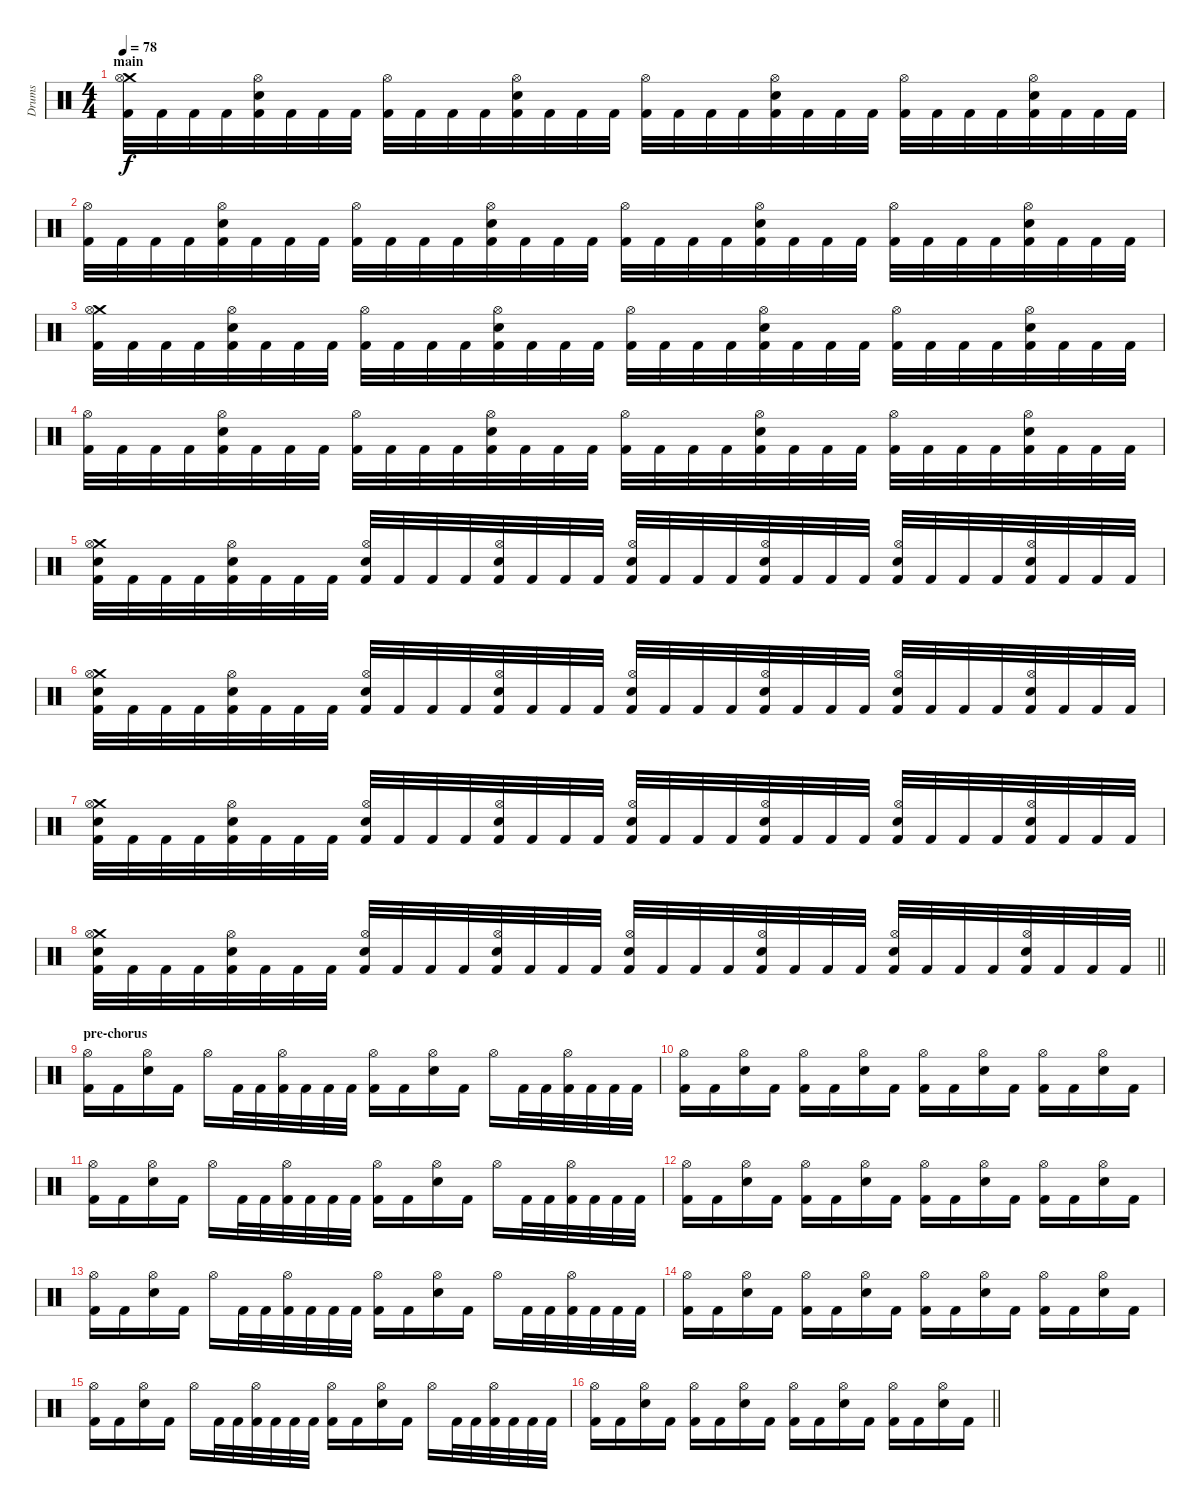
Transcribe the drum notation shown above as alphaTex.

\track ("Drums" "Drums") {instrument percussion}
\staff {score}
\articulation defaults
\ts (4 4)
\section ("" "main")
\tempo 78
\clef neutral
\ks c
("Crash medium (hit)" "Kick (hit) 2" "Hi-Hat (open)").32{dy f} "Kick (hit) 2".32 "Kick (hit) 2".32 "Kick (hit) 2".32 ("Electric Snare (hit)" "Kick (hit) 2" "Hi-Hat (open)").32 "Kick (hit) 2".32 "Kick (hit) 2".32 "Kick (hit) 2".32 ("Kick (hit) 2" "Hi-Hat (open)").32 "Kick (hit) 2".32 "Kick (hit) 2".32 "Kick (hit) 2".32 ("Electric Snare (hit)" "Kick (hit) 2" "Hi-Hat (open)").32 "Kick (hit) 2".32 "Kick (hit) 2".32 "Kick (hit) 2".32 ("Kick (hit) 2" "Hi-Hat (open)").32 "Kick (hit) 2".32 "Kick (hit) 2".32 "Kick (hit) 2".32 ("Electric Snare (hit)" "Kick (hit) 2" "Hi-Hat (open)").32 "Kick (hit) 2".32 "Kick (hit) 2".32 "Kick (hit) 2".32 ("Kick (hit) 2" "Hi-Hat (open)").32 "Kick (hit) 2".32 "Kick (hit) 2".32 "Kick (hit) 2".32 ("Electric Snare (hit)" "Kick (hit) 2" "Hi-Hat (open)").32 "Kick (hit) 2".32 "Kick (hit) 2".32 "Kick (hit) 2".32 |
("Kick (hit) 2" "Hi-Hat (open)").32 "Kick (hit) 2".32 "Kick (hit) 2".32 "Kick (hit) 2".32 ("Electric Snare (hit)" "Kick (hit) 2" "Hi-Hat (open)").32 "Kick (hit) 2".32 "Kick (hit) 2".32 "Kick (hit) 2".32 ("Kick (hit) 2" "Hi-Hat (open)").32 "Kick (hit) 2".32 "Kick (hit) 2".32 "Kick (hit) 2".32 ("Electric Snare (hit)" "Kick (hit) 2" "Hi-Hat (open)").32 "Kick (hit) 2".32 "Kick (hit) 2".32 "Kick (hit) 2".32 ("Kick (hit) 2" "Hi-Hat (open)").32 "Kick (hit) 2".32 "Kick (hit) 2".32 "Kick (hit) 2".32 ("Electric Snare (hit)" "Kick (hit) 2" "Hi-Hat (open)").32 "Kick (hit) 2".32 "Kick (hit) 2".32 "Kick (hit) 2".32 ("Kick (hit) 2" "Hi-Hat (open)").32 "Kick (hit) 2".32 "Kick (hit) 2".32 "Kick (hit) 2".32 ("Electric Snare (hit)" "Kick (hit) 2" "Hi-Hat (open)").32 "Kick (hit) 2".32 "Kick (hit) 2".32 "Kick (hit) 2".32 |
("Crash medium (hit)" "Kick (hit) 2" "Hi-Hat (open)").32 "Kick (hit) 2".32 "Kick (hit) 2".32 "Kick (hit) 2".32 ("Electric Snare (hit)" "Kick (hit) 2" "Hi-Hat (open)").32 "Kick (hit) 2".32 "Kick (hit) 2".32 "Kick (hit) 2".32 ("Kick (hit) 2" "Hi-Hat (open)").32 "Kick (hit) 2".32 "Kick (hit) 2".32 "Kick (hit) 2".32 ("Electric Snare (hit)" "Kick (hit) 2" "Hi-Hat (open)").32 "Kick (hit) 2".32 "Kick (hit) 2".32 "Kick (hit) 2".32 ("Kick (hit) 2" "Hi-Hat (open)").32 "Kick (hit) 2".32 "Kick (hit) 2".32 "Kick (hit) 2".32 ("Electric Snare (hit)" "Kick (hit) 2" "Hi-Hat (open)").32 "Kick (hit) 2".32 "Kick (hit) 2".32 "Kick (hit) 2".32 ("Kick (hit) 2" "Hi-Hat (open)").32 "Kick (hit) 2".32 "Kick (hit) 2".32 "Kick (hit) 2".32 ("Electric Snare (hit)" "Kick (hit) 2" "Hi-Hat (open)").32 "Kick (hit) 2".32 "Kick (hit) 2".32 "Kick (hit) 2".32 |
("Kick (hit) 2" "Hi-Hat (open)").32 "Kick (hit) 2".32 "Kick (hit) 2".32 "Kick (hit) 2".32 ("Electric Snare (hit)" "Kick (hit) 2" "Hi-Hat (open)").32 "Kick (hit) 2".32 "Kick (hit) 2".32 "Kick (hit) 2".32 ("Kick (hit) 2" "Hi-Hat (open)").32 "Kick (hit) 2".32 "Kick (hit) 2".32 "Kick (hit) 2".32 ("Electric Snare (hit)" "Kick (hit) 2" "Hi-Hat (open)").32 "Kick (hit) 2".32 "Kick (hit) 2".32 "Kick (hit) 2".32 ("Kick (hit) 2" "Hi-Hat (open)").32 "Kick (hit) 2".32 "Kick (hit) 2".32 "Kick (hit) 2".32 ("Electric Snare (hit)" "Kick (hit) 2" "Hi-Hat (open)").32 "Kick (hit) 2".32 "Kick (hit) 2".32 "Kick (hit) 2".32 ("Kick (hit) 2" "Hi-Hat (open)").32 "Kick (hit) 2".32 "Kick (hit) 2".32 "Kick (hit) 2".32 ("Electric Snare (hit)" "Kick (hit) 2" "Hi-Hat (open)").32 "Kick (hit) 2".32 "Kick (hit) 2".32 "Kick (hit) 2".32 |
("Electric Snare (hit)" "Crash medium (hit)" "Kick (hit) 2" "Hi-Hat (open)").32 "Kick (hit) 2".32 "Kick (hit) 2".32 "Kick (hit) 2".32 ("Electric Snare (hit)" "Kick (hit) 2" "Hi-Hat (open)").32 "Kick (hit) 2".32 "Kick (hit) 2".32 "Kick (hit) 2".32 ("Electric Snare (hit)" "Kick (hit) 2" "Hi-Hat (open)").32 "Kick (hit) 2".32 "Kick (hit) 2".32 "Kick (hit) 2".32 ("Electric Snare (hit)" "Kick (hit) 2" "Hi-Hat (open)").32 "Kick (hit) 2".32 "Kick (hit) 2".32 "Kick (hit) 2".32 ("Electric Snare (hit)" "Kick (hit) 2" "Hi-Hat (open)").32 "Kick (hit) 2".32 "Kick (hit) 2".32 "Kick (hit) 2".32 ("Electric Snare (hit)" "Kick (hit) 2" "Hi-Hat (open)").32 "Kick (hit) 2".32 "Kick (hit) 2".32 "Kick (hit) 2".32 ("Electric Snare (hit)" "Kick (hit) 2" "Hi-Hat (open)").32 "Kick (hit) 2".32 "Kick (hit) 2".32 "Kick (hit) 2".32 ("Electric Snare (hit)" "Kick (hit) 2" "Hi-Hat (open)").32 "Kick (hit) 2".32 "Kick (hit) 2".32 "Kick (hit) 2".32 |
("Electric Snare (hit)" "Crash medium (hit)" "Kick (hit) 2" "Hi-Hat (open)").32 "Kick (hit) 2".32 "Kick (hit) 2".32 "Kick (hit) 2".32 ("Electric Snare (hit)" "Kick (hit) 2" "Hi-Hat (open)").32 "Kick (hit) 2".32 "Kick (hit) 2".32 "Kick (hit) 2".32 ("Electric Snare (hit)" "Kick (hit) 2" "Hi-Hat (open)").32 "Kick (hit) 2".32 "Kick (hit) 2".32 "Kick (hit) 2".32 ("Electric Snare (hit)" "Kick (hit) 2" "Hi-Hat (open)").32 "Kick (hit) 2".32 "Kick (hit) 2".32 "Kick (hit) 2".32 ("Electric Snare (hit)" "Kick (hit) 2" "Hi-Hat (open)").32 "Kick (hit) 2".32 "Kick (hit) 2".32 "Kick (hit) 2".32 ("Electric Snare (hit)" "Kick (hit) 2" "Hi-Hat (open)").32 "Kick (hit) 2".32 "Kick (hit) 2".32 "Kick (hit) 2".32 ("Electric Snare (hit)" "Kick (hit) 2" "Hi-Hat (open)").32 "Kick (hit) 2".32 "Kick (hit) 2".32 "Kick (hit) 2".32 ("Electric Snare (hit)" "Kick (hit) 2" "Hi-Hat (open)").32 "Kick (hit) 2".32 "Kick (hit) 2".32 "Kick (hit) 2".32 |
("Electric Snare (hit)" "Crash medium (hit)" "Kick (hit) 2" "Hi-Hat (open)").32 "Kick (hit) 2".32 "Kick (hit) 2".32 "Kick (hit) 2".32 ("Electric Snare (hit)" "Kick (hit) 2" "Hi-Hat (open)").32 "Kick (hit) 2".32 "Kick (hit) 2".32 "Kick (hit) 2".32 ("Electric Snare (hit)" "Kick (hit) 2" "Hi-Hat (open)").32 "Kick (hit) 2".32 "Kick (hit) 2".32 "Kick (hit) 2".32 ("Electric Snare (hit)" "Kick (hit) 2" "Hi-Hat (open)").32 "Kick (hit) 2".32 "Kick (hit) 2".32 "Kick (hit) 2".32 ("Electric Snare (hit)" "Kick (hit) 2" "Hi-Hat (open)").32 "Kick (hit) 2".32 "Kick (hit) 2".32 "Kick (hit) 2".32 ("Electric Snare (hit)" "Kick (hit) 2" "Hi-Hat (open)").32 "Kick (hit) 2".32 "Kick (hit) 2".32 "Kick (hit) 2".32 ("Electric Snare (hit)" "Kick (hit) 2" "Hi-Hat (open)").32 "Kick (hit) 2".32 "Kick (hit) 2".32 "Kick (hit) 2".32 ("Electric Snare (hit)" "Kick (hit) 2" "Hi-Hat (open)").32 "Kick (hit) 2".32 "Kick (hit) 2".32 "Kick (hit) 2".32 |
\barLineRight lightlight
("Electric Snare (hit)" "Crash medium (hit)" "Kick (hit) 2" "Hi-Hat (open)").32 "Kick (hit) 2".32 "Kick (hit) 2".32 "Kick (hit) 2".32 ("Electric Snare (hit)" "Kick (hit) 2" "Hi-Hat (open)").32 "Kick (hit) 2".32 "Kick (hit) 2".32 "Kick (hit) 2".32 ("Electric Snare (hit)" "Kick (hit) 2" "Hi-Hat (open)").32 "Kick (hit) 2".32 "Kick (hit) 2".32 "Kick (hit) 2".32 ("Electric Snare (hit)" "Kick (hit) 2" "Hi-Hat (open)").32 "Kick (hit) 2".32 "Kick (hit) 2".32 "Kick (hit) 2".32 ("Electric Snare (hit)" "Kick (hit) 2" "Hi-Hat (open)").32 "Kick (hit) 2".32 "Kick (hit) 2".32 "Kick (hit) 2".32 ("Electric Snare (hit)" "Kick (hit) 2" "Hi-Hat (open)").32 "Kick (hit) 2".32 "Kick (hit) 2".32 "Kick (hit) 2".32 ("Electric Snare (hit)" "Kick (hit) 2" "Hi-Hat (open)").32 "Kick (hit) 2".32 "Kick (hit) 2".32 "Kick (hit) 2".32 ("Electric Snare (hit)" "Kick (hit) 2" "Hi-Hat (open)").32 "Kick (hit) 2".32 "Kick (hit) 2".32 "Kick (hit) 2".32 |
\section ("" "pre-chorus")
("Kick (hit) 2" "Hi-Hat (open)").16 "Kick (hit) 2".16 ("Electric Snare (hit)" "Hi-Hat (open)").16 "Kick (hit) 2".16 "Hi-Hat (open)".16 "Kick (hit) 2".32 "Kick (hit) 2".32 ("Kick (hit) 2" "Hi-Hat (open)").32 "Kick (hit) 2".32 "Kick (hit) 2".32 "Kick (hit) 2".32 ("Kick (hit) 2" "Hi-Hat (open)").16 "Kick (hit) 2".16 ("Electric Snare (hit)" "Hi-Hat (open)").16 "Kick (hit) 2".16 "Hi-Hat (open)".16 "Kick (hit) 2".32 "Kick (hit) 2".32 ("Kick (hit) 2" "Hi-Hat (open)").32 "Kick (hit) 2".32 "Kick (hit) 2".32 "Kick (hit) 2".32 |
("Kick (hit) 2" "Hi-Hat (open)").16 "Kick (hit) 2".16 ("Electric Snare (hit)" "Hi-Hat (open)").16 "Kick (hit) 2".16 ("Kick (hit) 2" "Hi-Hat (open)").16 "Kick (hit) 2".16 ("Electric Snare (hit)" "Hi-Hat (open)").16 "Kick (hit) 2".16 ("Kick (hit) 2" "Hi-Hat (open)").16 "Kick (hit) 2".16 ("Electric Snare (hit)" "Hi-Hat (open)").16 "Kick (hit) 2".16 ("Kick (hit) 2" "Hi-Hat (open)").16 "Kick (hit) 2".16 ("Electric Snare (hit)" "Hi-Hat (open)").16 "Kick (hit) 2".16 |
("Kick (hit) 2" "Hi-Hat (open)").16 "Kick (hit) 2".16 ("Electric Snare (hit)" "Hi-Hat (open)").16 "Kick (hit) 2".16 "Hi-Hat (open)".16 "Kick (hit) 2".32 "Kick (hit) 2".32 ("Kick (hit) 2" "Hi-Hat (open)").32 "Kick (hit) 2".32 "Kick (hit) 2".32 "Kick (hit) 2".32 ("Kick (hit) 2" "Hi-Hat (open)").16 "Kick (hit) 2".16 ("Electric Snare (hit)" "Hi-Hat (open)").16 "Kick (hit) 2".16 "Hi-Hat (open)".16 "Kick (hit) 2".32 "Kick (hit) 2".32 ("Kick (hit) 2" "Hi-Hat (open)").32 "Kick (hit) 2".32 "Kick (hit) 2".32 "Kick (hit) 2".32 |
("Kick (hit) 2" "Hi-Hat (open)").16 "Kick (hit) 2".16 ("Electric Snare (hit)" "Hi-Hat (open)").16 "Kick (hit) 2".16 ("Kick (hit) 2" "Hi-Hat (open)").16 "Kick (hit) 2".16 ("Electric Snare (hit)" "Hi-Hat (open)").16 "Kick (hit) 2".16 ("Kick (hit) 2" "Hi-Hat (open)").16 "Kick (hit) 2".16 ("Electric Snare (hit)" "Hi-Hat (open)").16 "Kick (hit) 2".16 ("Kick (hit) 2" "Hi-Hat (open)").16 "Kick (hit) 2".16 ("Electric Snare (hit)" "Hi-Hat (open)").16 "Kick (hit) 2".16 |
("Kick (hit) 2" "Hi-Hat (open)").16 "Kick (hit) 2".16 ("Electric Snare (hit)" "Hi-Hat (open)").16 "Kick (hit) 2".16 "Hi-Hat (open)".16 "Kick (hit) 2".32 "Kick (hit) 2".32 ("Kick (hit) 2" "Hi-Hat (open)").32 "Kick (hit) 2".32 "Kick (hit) 2".32 "Kick (hit) 2".32 ("Kick (hit) 2" "Hi-Hat (open)").16 "Kick (hit) 2".16 ("Electric Snare (hit)" "Hi-Hat (open)").16 "Kick (hit) 2".16 "Hi-Hat (open)".16 "Kick (hit) 2".32 "Kick (hit) 2".32 ("Kick (hit) 2" "Hi-Hat (open)").32 "Kick (hit) 2".32 "Kick (hit) 2".32 "Kick (hit) 2".32 |
("Kick (hit) 2" "Hi-Hat (open)").16 "Kick (hit) 2".16 ("Electric Snare (hit)" "Hi-Hat (open)").16 "Kick (hit) 2".16 ("Kick (hit) 2" "Hi-Hat (open)").16 "Kick (hit) 2".16 ("Electric Snare (hit)" "Hi-Hat (open)").16 "Kick (hit) 2".16 ("Kick (hit) 2" "Hi-Hat (open)").16 "Kick (hit) 2".16 ("Electric Snare (hit)" "Hi-Hat (open)").16 "Kick (hit) 2".16 ("Kick (hit) 2" "Hi-Hat (open)").16 "Kick (hit) 2".16 ("Electric Snare (hit)" "Hi-Hat (open)").16 "Kick (hit) 2".16 |
("Kick (hit) 2" "Hi-Hat (open)").16 "Kick (hit) 2".16 ("Electric Snare (hit)" "Hi-Hat (open)").16 "Kick (hit) 2".16 "Hi-Hat (open)".16 "Kick (hit) 2".32 "Kick (hit) 2".32 ("Kick (hit) 2" "Hi-Hat (open)").32 "Kick (hit) 2".32 "Kick (hit) 2".32 "Kick (hit) 2".32 ("Kick (hit) 2" "Hi-Hat (open)").16 "Kick (hit) 2".16 ("Electric Snare (hit)" "Hi-Hat (open)").16 "Kick (hit) 2".16 "Hi-Hat (open)".16 "Kick (hit) 2".32 "Kick (hit) 2".32 ("Kick (hit) 2" "Hi-Hat (open)").32 "Kick (hit) 2".32 "Kick (hit) 2".32 "Kick (hit) 2".32 |
\barLineRight lightlight
("Kick (hit) 2" "Hi-Hat (open)").16 "Kick (hit) 2".16 ("Electric Snare (hit)" "Hi-Hat (open)").16 "Kick (hit) 2".16 ("Kick (hit) 2" "Hi-Hat (open)").16 "Kick (hit) 2".16 ("Electric Snare (hit)" "Hi-Hat (open)").16 "Kick (hit) 2".16 ("Kick (hit) 2" "Hi-Hat (open)").16 "Kick (hit) 2".16 ("Electric Snare (hit)" "Hi-Hat (open)").16 "Kick (hit) 2".16 ("Kick (hit) 2" "Hi-Hat (open)").16 "Kick (hit) 2".16 ("Electric Snare (hit)" "Hi-Hat (open)").16 "Kick (hit) 2".16
